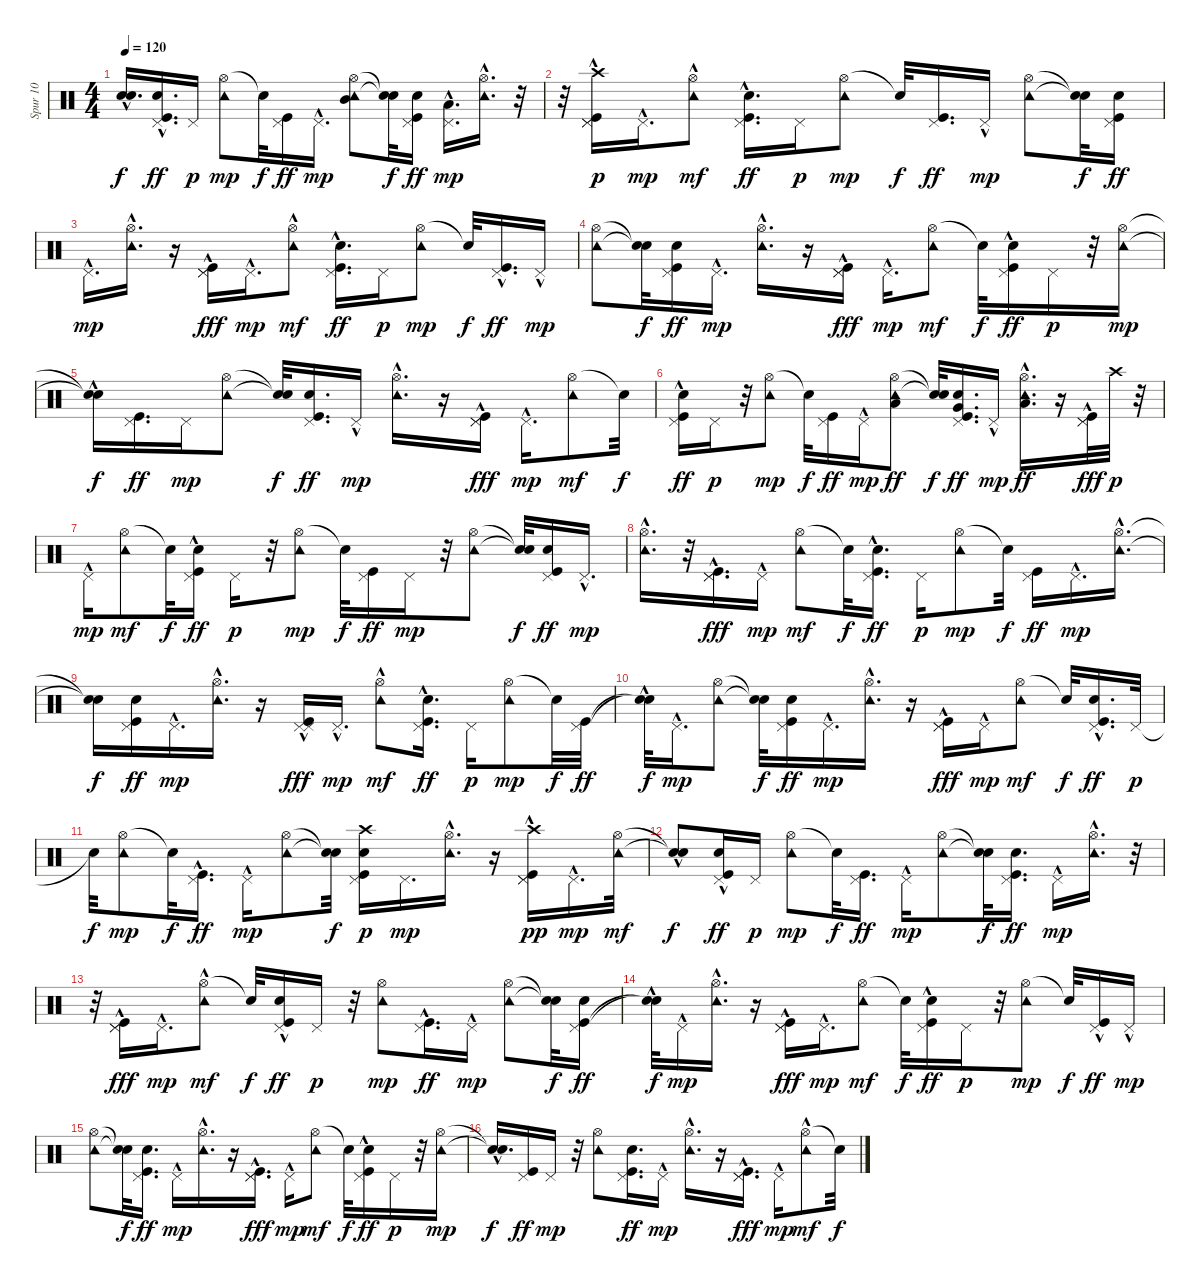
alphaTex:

\track ("Spur 10" "Spur 10") {instrument percussion}
\staff {score}
\articulation defaults
\ts (4 4)
\tempo 120
\clef neutral
\ks c
("Snare (hit)"{hac t} "Snare (hit)"{t}).16{d dy f} ("Pedal Hi-Hat (hit)" "Kick (hit)"{hac} "Snare (hit) 2"{hac}).16{d dy ff} "Pedal Hi-Hat (hit)".16{dy p} ("Hi-Hat (open)" "Tambourine (hit)").8{dy mp} "Snare (hit)"{t}.32{dy f} ("Pedal Hi-Hat (hit)" "Kick (hit)").16{dy ff} "Pedal Hi-Hat (hit)"{hac}.16{d dy mp} ("Hi-Hat (open)" "Tambourine (hit)" "Mid Tom (hit)").8 ("Snare (hit)"{t} "Snare (hit)"{t}).32{dy f} ("Pedal Hi-Hat (hit)" "Kick (hit)" "Snare (hit) 2").16{dy ff} ("Pedal Hi-Hat (hit)"{hac} "Low Tom (hit)").16{d dy mp} ("Hi-Hat (open)" "Tambourine (hit)"{hac}).16{d} r.32 |
r.32 ("Pedal Hi-Hat (hit)" "Pedal Hi-Hat (hit)" "Kick (hit)"{hac} "Crash high (hit)").16{dy p} "Pedal Hi-Hat (hit)"{hac}.16{d dy mp} ("Hi-Hat (open)" "Tambourine (hit)"{hac}).8{dy mf} ("Pedal Hi-Hat (hit)" "Kick (hit)" "Snare (hit) 2"{hac}).16{d dy ff} "Pedal Hi-Hat (hit)".16{dy p} ("Hi-Hat (open)" "Tambourine (hit)").8{dy mp} "Snare (hit)"{t}.32{dy f} ("Pedal Hi-Hat (hit)" "Kick (hit)").16{d dy ff} "Pedal Hi-Hat (hit)"{hac}.16{dy mp} ("Hi-Hat (open)" "Tambourine (hit)").8 ("Snare (hit)"{t} "Snare (hit)"{t}).32{dy f} ("Pedal Hi-Hat (hit)" "Kick (hit)" "Snare (hit) 2").16{dy ff} |
"Pedal Hi-Hat (hit)"{hac}.16{d dy mp} ("Hi-Hat (open)" "Tambourine (hit)"{hac}).16{d} r.16 ("Pedal Hi-Hat (hit)" "Pedal Hi-Hat (hit)" "Kick (hit)"{hac}).16{dy fff} "Pedal Hi-Hat (hit)"{hac}.16{d dy mp} ("Hi-Hat (open)" "Tambourine (hit)"{hac}).8{dy mf} ("Pedal Hi-Hat (hit)" "Kick (hit)"{hac} "Snare (hit) 2"{hac}).16{d dy ff} "Pedal Hi-Hat (hit)".16{dy p} ("Hi-Hat (open)" "Tambourine (hit)").8{dy mp} "Snare (hit)"{t}.32{dy f} ("Pedal Hi-Hat (hit)" "Kick (hit)"{hac}).16{d dy ff} "Pedal Hi-Hat (hit)"{hac}.16{dy mp} |
("Hi-Hat (open)" "Tambourine (hit)").8 ("Snare (hit)"{t} "Snare (hit)"{t}).32{dy f} ("Pedal Hi-Hat (hit)" "Kick (hit)" "Snare (hit) 2").16{dy ff} "Pedal Hi-Hat (hit)"{hac}.16{d dy mp} ("Hi-Hat (open)" "Tambourine (hit)"{hac}).16{d} r.16 ("Pedal Hi-Hat (hit)" "Pedal Hi-Hat (hit)" "Kick (hit)"{hac}).16{dy fff} "Pedal Hi-Hat (hit)"{hac}.16{d dy mp} ("Hi-Hat (open)" "Tambourine (hit)").8{dy mf} "Snare (hit)"{t}.32{dy f} ("Pedal Hi-Hat (hit)" "Kick (hit)" "Snare (hit) 2"{hac}).16{dy ff} "Pedal Hi-Hat (hit)".16{dy p} r.32 ("Hi-Hat (open)" "Tambourine (hit)").16{dy mp} |
("Snare (hit)"{hac t} "Snare (hit)"{t}).16{dy f} ("Pedal Hi-Hat (hit)" "Kick (hit)").16{d dy ff} "Pedal Hi-Hat (hit)".16{dy mp} ("Hi-Hat (open)" "Tambourine (hit)").8 ("Snare (hit)"{t} "Snare (hit)"{t}).32{dy f} ("Pedal Hi-Hat (hit)" "Kick (hit)" "Snare (hit) 2").16{d dy ff} "Pedal Hi-Hat (hit)"{hac}.16{dy mp} ("Hi-Hat (open)" "Tambourine (hit)"{hac}).16{d} r.16 ("Pedal Hi-Hat (hit)" "Pedal Hi-Hat (hit)" "Kick (hit)"{hac}).16{dy fff} "Pedal Hi-Hat (hit)"{hac}.16{d dy mp} ("Hi-Hat (open)" "Tambourine (hit)").8{dy mf} "Snare (hit)"{t}.32{dy f} |
("Pedal Hi-Hat (hit)" "Kick (hit)"{hac} "Snare (hit) 2"{hac}).16{dy ff} "Pedal Hi-Hat (hit)".16{dy p} r.32 ("Hi-Hat (open)" "Tambourine (hit)").8{dy mp} "Snare (hit)"{t}.32{dy f} ("Pedal Hi-Hat (hit)" "Kick (hit)").16{dy ff} "Pedal Hi-Hat (hit)"{hac}.16{dy mp} ("Hi-Hat (open)" "Tambourine (hit)" "Low Tom (hit)").8{dy ff} ("Snare (hit)"{t} "Snare (hit)"{t}).32{dy f} ("Pedal Hi-Hat (hit)" "Kick (hit)" "Snare (hit) 2" "Very Low Tom (hit)").16{d dy ff} "Pedal Hi-Hat (hit)"{hac}.16{dy mp} ("Hi-Hat (open)" "Tambourine (hit)"{hac} "Low Floor Tom (hit)").16{d dy ff} r.16 ("Pedal Hi-Hat (hit)" "Pedal Hi-Hat (hit)" "Kick (hit)"{hac}).32{dy fff} "Crash high (hit)".32{dy p} r.32 |
"Pedal Hi-Hat (hit)"{hac}.16{dy mp} ("Hi-Hat (open)" "Tambourine (hit)").8{dy mf} "Snare (hit)"{t}.32{dy f} ("Pedal Hi-Hat (hit)" "Kick (hit)"{hac} "Snare (hit) 2"{hac}).16{dy ff} "Pedal Hi-Hat (hit)".16{dy p} r.32 ("Hi-Hat (open)" "Tambourine (hit)").8{dy mp} "Snare (hit)"{t}.32{dy f} ("Pedal Hi-Hat (hit)" "Kick (hit)").16{dy ff} "Pedal Hi-Hat (hit)".16{dy mp} r.32 ("Hi-Hat (open)" "Tambourine (hit)").8 ("Snare (hit)"{t} "Snare (hit)"{t}).32{dy f} ("Pedal Hi-Hat (hit)" "Kick (hit)" "Snare (hit) 2").16{dy ff} "Pedal Hi-Hat (hit)"{hac}.16{d dy mp} |
("Hi-Hat (open)" "Tambourine (hit)"{hac}).16{d} r.32 ("Pedal Hi-Hat (hit)" "Pedal Hi-Hat (hit)" "Kick (hit)"{hac}).16{d dy fff} "Pedal Hi-Hat (hit)"{hac}.16{dy mp} ("Hi-Hat (open)" "Tambourine (hit)").8{dy mf} "Snare (hit)"{t}.32{dy f} ("Pedal Hi-Hat (hit)" "Kick (hit)"{hac} "Snare (hit) 2"{hac}).16{d dy ff} "Pedal Hi-Hat (hit)".16{dy p} ("Hi-Hat (open)" "Tambourine (hit)").8{dy mp} "Snare (hit)"{t}.32{dy f} ("Pedal Hi-Hat (hit)" "Kick (hit)").16{dy ff} "Pedal Hi-Hat (hit)"{hac}.16{d dy mp} ("Hi-Hat (open)"{hac} "Tambourine (hit)"{hac}).16{d} |
("Snare (hit)"{t} "Snare (hit)"{t}).16{dy f} ("Pedal Hi-Hat (hit)" "Kick (hit)" "Snare (hit) 2").16{dy ff} "Pedal Hi-Hat (hit)"{hac}.16{d dy mp} ("Hi-Hat (open)" "Tambourine (hit)"{hac}).16{d} r.16 ("Pedal Hi-Hat (hit)" "Pedal Hi-Hat (hit)" "Kick (hit)"{hac}).16{dy fff} "Pedal Hi-Hat (hit)"{hac}.16{d dy mp} ("Hi-Hat (open)" "Tambourine (hit)"{hac}).8{dy mf} ("Pedal Hi-Hat (hit)" "Kick (hit)"{hac} "Snare (hit) 2"{hac}).16{d dy ff} "Pedal Hi-Hat (hit)".16{dy p} ("Hi-Hat (open)" "Tambourine (hit)").8{dy mp} "Snare (hit)"{t}.32{dy f} ("Pedal Hi-Hat (hit)" "Kick (hit)").32{dy ff} |
("Snare (hit)"{t} "Snare (hit)"{hac t}).32{dy f} "Pedal Hi-Hat (hit)"{hac}.16{d dy mp} ("Hi-Hat (open)" "Tambourine (hit)").8 ("Snare (hit)"{t} "Snare (hit)"{t}).32{dy f} ("Pedal Hi-Hat (hit)" "Kick (hit)" "Snare (hit) 2").16{dy ff} "Pedal Hi-Hat (hit)"{hac}.16{d dy mp} ("Hi-Hat (open)" "Tambourine (hit)"{hac}).16{d} r.16 ("Pedal Hi-Hat (hit)" "Pedal Hi-Hat (hit)" "Kick (hit)"{hac}).16{dy fff} "Pedal Hi-Hat (hit)"{hac}.16{dy mp} ("Hi-Hat (open)" "Tambourine (hit)").8{dy mf} "Snare (hit)"{t}.32{dy f} ("Pedal Hi-Hat (hit)" "Kick (hit)"{hac} "Snare (hit) 2"{hac}).16{d dy ff} "Pedal Hi-Hat (hit)".32{dy p} |
"Snare (hit)"{t}.32{dy f} ("Hi-Hat (open)" "Tambourine (hit)").8{dy mp} "Snare (hit)"{t}.32{dy f} ("Pedal Hi-Hat (hit)" "Kick (hit)"{hac}).16{d dy ff} "Pedal Hi-Hat (hit)"{hac}.16{dy mp} ("Hi-Hat (open)" "Tambourine (hit)").8 ("Snare (hit)"{t} "Snare (hit)"{t}).32{dy f} ("Pedal Hi-Hat (hit)" "Kick (hit)" "Snare (hit) 2" "Crash high (hit)").16{dy p} "Pedal Hi-Hat (hit)".16{d dy mp} ("Hi-Hat (open)" "Tambourine (hit)"{hac}).16{d} r.16 ("Pedal Hi-Hat (hit)" "Pedal Hi-Hat (hit)" "Kick (hit)"{hac} "Crash high (hit)").16{dy pp} "Pedal Hi-Hat (hit)"{hac}.16{d dy mp} ("Hi-Hat (open)" "Tambourine (hit)").32{dy mf} |
("Snare (hit)"{t} "Snare (hit)"{hac t}).8{dy f} ("Pedal Hi-Hat (hit)" "Kick (hit)"{hac} "Snare (hit) 2"{hac}).16{dy ff} "Pedal Hi-Hat (hit)".16{dy p} ("Hi-Hat (open)" "Tambourine (hit)").8{dy mp} "Snare (hit)"{t}.32{dy f} ("Pedal Hi-Hat (hit)" "Kick (hit)").16{d dy ff} "Pedal Hi-Hat (hit)"{hac}.16{dy mp} ("Hi-Hat (open)" "Tambourine (hit)").8 ("Snare (hit)"{t} "Snare (hit)"{t}).32{dy f} ("Pedal Hi-Hat (hit)" "Kick (hit)" "Snare (hit) 2").16{d dy ff} "Pedal Hi-Hat (hit)"{hac}.16{dy mp} ("Hi-Hat (open)" "Tambourine (hit)"{hac}).16{d} r.32 |
r.32 ("Pedal Hi-Hat (hit)" "Pedal Hi-Hat (hit)" "Kick (hit)"{hac}).16{dy fff} "Pedal Hi-Hat (hit)"{hac}.16{d dy mp} ("Hi-Hat (open)" "Tambourine (hit)"{hac}).8{dy mf} "Snare (hit)"{t}.32{dy f} ("Pedal Hi-Hat (hit)" "Kick (hit)"{hac} "Snare (hit) 2"{hac}).16{dy ff} "Pedal Hi-Hat (hit)".16{dy p} r.32 ("Hi-Hat (open)" "Tambourine (hit)").8{dy mp} ("Pedal Hi-Hat (hit)" "Kick (hit)"{hac}).16{d dy ff} "Pedal Hi-Hat (hit)"{hac}.16{dy mp} ("Hi-Hat (open)" "Tambourine (hit)").8 ("Snare (hit)"{t} "Snare (hit)"{t}).32{dy f} ("Pedal Hi-Hat (hit)" "Kick (hit)" "Snare (hit) 2").16{dy ff} |
("Snare (hit)"{hac t} "Snare (hit)"{hac t}).32{dy f} "Pedal Hi-Hat (hit)"{hac}.16{dy mp} ("Hi-Hat (open)" "Tambourine (hit)"{hac}).16{d} r.16 ("Pedal Hi-Hat (hit)" "Pedal Hi-Hat (hit)" "Kick (hit)"{hac}).16{dy fff} "Pedal Hi-Hat (hit)"{hac}.16{d dy mp} ("Hi-Hat (open)" "Tambourine (hit)").8{dy mf} "Snare (hit)"{t}.32{dy f} ("Pedal Hi-Hat (hit)" "Kick (hit)" "Snare (hit) 2"{hac}).16{dy ff} "Pedal Hi-Hat (hit)".16{dy p} r.32 ("Hi-Hat (open)" "Tambourine (hit)").8{dy mp} "Snare (hit)"{t}.32{dy f} ("Pedal Hi-Hat (hit)" "Kick (hit)"{hac}).16{dy ff} "Pedal Hi-Hat (hit)"{hac}.16{dy mp} |
("Hi-Hat (open)" "Tambourine (hit)").8 ("Snare (hit)"{t} "Snare (hit)"{t}).32{dy f} ("Pedal Hi-Hat (hit)" "Kick (hit)" "Snare (hit) 2").16{d dy ff} "Pedal Hi-Hat (hit)"{hac}.16{dy mp} ("Hi-Hat (open)" "Tambourine (hit)"{hac}).16{d} r.16 ("Pedal Hi-Hat (hit)" "Pedal Hi-Hat (hit)" "Kick (hit)"{hac}).16{d dy fff} "Pedal Hi-Hat (hit)"{hac}.16{dy mp} ("Hi-Hat (open)" "Tambourine (hit)").8{dy mf} "Snare (hit)"{t}.32{dy f} ("Pedal Hi-Hat (hit)" "Kick (hit)"{hac} "Snare (hit) 2"{hac}).16{dy ff} "Pedal Hi-Hat (hit)".16{dy p} r.32 ("Hi-Hat (open)" "Tambourine (hit)").16{dy mp} |
("Snare (hit)"{hac t} "Snare (hit)"{t}).16{d dy f} ("Pedal Hi-Hat (hit)" "Kick (hit)").16{dy ff} "Pedal Hi-Hat (hit)".16{dy mp} r.32 ("Hi-Hat (open)" "Tambourine (hit)").8 ("Pedal Hi-Hat (hit)" "Kick (hit)" "Snare (hit) 2").16{d dy ff} "Pedal Hi-Hat (hit)"{hac}.16{dy mp} ("Hi-Hat (open)" "Tambourine (hit)"{hac}).16{d} r.16 ("Pedal Hi-Hat (hit)" "Pedal Hi-Hat (hit)" "Kick (hit)"{hac}).16{d dy fff} "Pedal Hi-Hat (hit)"{hac}.16{dy mp} ("Hi-Hat (open)" "Tambourine (hit)"{hac}).8{dy mf} "Snare (hit)"{t}.32{dy f}
